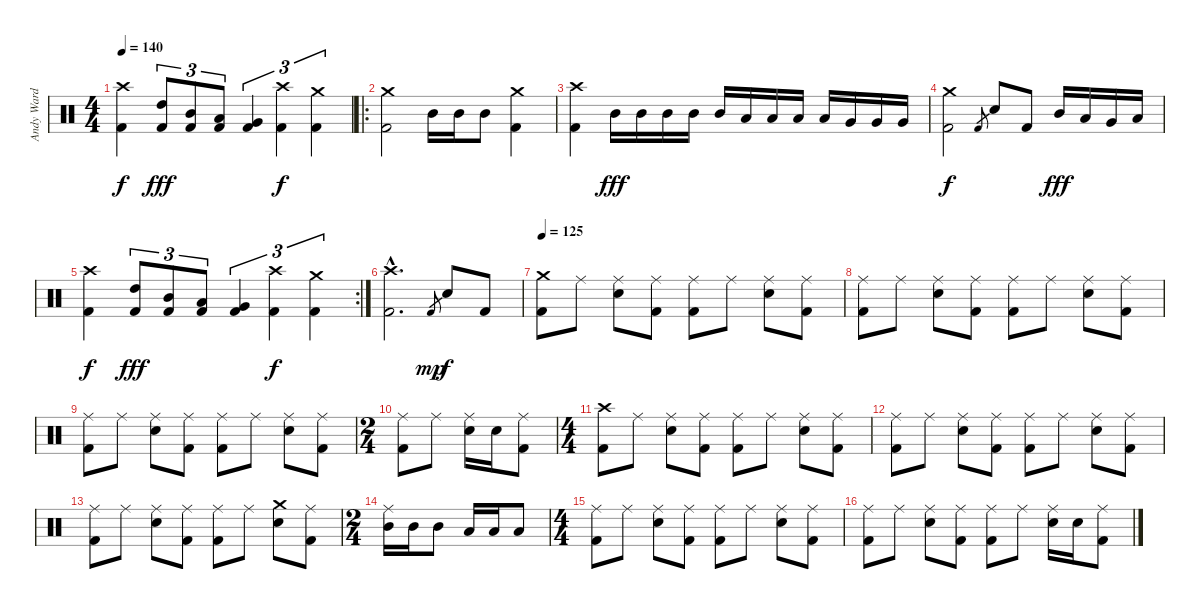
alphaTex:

\track ("Andy Ward" "Andy Ward") {instrument percussion}
\staff {score}
\articulation defaults
\ts (4 4)
\tempo 140
\clef neutral
\ks c
("Crash high (hit)" "Kick (hit) 2").4{dy f} ("High Tom (hit)" "Kick (hit) 2").8{tu (3 2) dy fff} ("Mid Tom (hit)" "Kick (hit) 2").8{tu (3 2)} ("Low Tom (hit)" "Kick (hit) 2").8{tu (3 2)} ("Very Low Tom (hit)" "Kick (hit) 2").4{tu (3 2)} ("Crash high (hit)" "Kick (hit) 2").4{tu (3 2) dy f} ("Crash medium (hit)" "Kick (hit) 2").4{tu (3 2)} |
\ro
("Crash medium (hit)" "Kick (hit) 2").2 "Mid Tom (hit)".16 "Mid Tom (hit)".16 "Mid Tom (hit)".8 ("Crash medium (hit)" "Kick (hit) 2").4 |
("Crash high (hit)" "Kick (hit) 2").4 "Mid Tom (hit)".16{dy fff} "Mid Tom (hit)".16 "Mid Tom (hit)".16 "Mid Tom (hit)".16 "Mid Tom (hit)".16 "Low Tom (hit)".16 "Low Tom (hit)".16 "Low Tom (hit)".16 "Low Tom (hit)".16 "Very Low Tom (hit)".16 "Very Low Tom (hit)".16 "Very Low Tom (hit)".16 |
("Crash medium (hit)" "Kick (hit) 2").2{dy f} "Kick (hit) 2".8{gr} "Snare (hit) 2".8 "Kick (hit) 2".8 "Mid Tom (hit)".16{dy fff} "Low Tom (hit)".16 "Very Low Tom (hit)".16 "Low Floor Tom (hit)".16 |
\rc 2
("Crash high (hit)" "Kick (hit) 2").4{dy f} ("High Tom (hit)" "Kick (hit) 2").8{tu (3 2) dy fff} ("Mid Tom (hit)" "Kick (hit) 2").8{tu (3 2)} ("Low Tom (hit)" "Kick (hit) 2").8{tu (3 2)} ("Very Low Tom (hit)" "Kick (hit) 2").4{tu (3 2)} ("Crash high (hit)" "Kick (hit) 2").4{tu (3 2) dy f} ("Crash medium (hit)" "Kick (hit) 2").4{tu (3 2)} |
("Crash high (hit)"{hac} "Kick (hit) 2"{hac}).2{d} "Kick (hit) 2".8{gr dy mp} "Snare (hit) 2".8{dy f} "Kick (hit) 2".8 |
\tempo 125
("Crash medium (hit)" "Kick (hit) 2").8 "Ride (middle)".8 ("Ride (middle)" "Snare (hit) 2").8 ("Ride (middle)" "Kick (hit) 2").8 ("Ride (middle)" "Kick (hit) 2").8 "Ride (middle)".8 ("Ride (middle)" "Snare (hit) 2").8 ("Ride (middle)" "Kick (hit) 2").8 |
("Ride (middle)" "Kick (hit) 2").8 "Ride (middle)".8 ("Ride (middle)" "Snare (hit) 2").8 ("Ride (middle)" "Kick (hit) 2").8 ("Ride (middle)" "Kick (hit) 2").8 "Ride (middle)".8 ("Ride (middle)" "Snare (hit) 2").8 ("Ride (middle)" "Kick (hit) 2").8 |
("Ride (middle)" "Kick (hit) 2").8 "Ride (middle)".8 ("Ride (middle)" "Snare (hit) 2").8 ("Ride (middle)" "Kick (hit) 2").8 ("Ride (middle)" "Kick (hit) 2").8 "Ride (middle)".8 ("Ride (middle)" "Snare (hit) 2").8 ("Ride (middle)" "Kick (hit) 2").8 |
\ts (2 4)
("Ride (middle)" "Kick (hit) 2").8 "Ride (middle)".8 ("Ride (middle)" "Snare (hit) 2").16 "Snare (hit) 2".16 ("Ride (middle)" "Kick (hit) 2").8 |
\ts (4 4)
("Crash high (hit)" "Kick (hit) 2").8 "Ride (middle)".8 ("Ride (middle)" "Snare (hit) 2").8 ("Ride (middle)" "Kick (hit) 2").8 ("Ride (middle)" "Kick (hit) 2").8 "Ride (middle)".8 ("Ride (middle)" "Snare (hit) 2").8 ("Ride (middle)" "Kick (hit) 2").8 |
("Ride (middle)" "Kick (hit) 2").8 "Ride (middle)".8 ("Ride (middle)" "Snare (hit) 2").8 ("Ride (middle)" "Kick (hit) 2").8 ("Ride (middle)" "Kick (hit) 2").8 "Ride (middle)".8 ("Ride (middle)" "Snare (hit) 2").8 ("Ride (middle)" "Kick (hit) 2").8 |
("Ride (middle)" "Kick (hit) 2").8 "Ride (middle)".8 ("Ride (middle)" "Snare (hit) 2").8 ("Ride (middle)" "Kick (hit) 2").8 ("Ride (middle)" "Kick (hit) 2").8 "Ride (middle)".8 ("Crash medium (hit)" "Snare (hit) 2").8 ("Ride (middle)" "Kick (hit) 2").8 |
\ts (2 4)
("Ride (middle)" "Mid Tom (hit)").16 "Mid Tom (hit)".16 "Mid Tom (hit)".8 "Low Tom (hit)".16 "Low Tom (hit)".16 "Low Tom (hit)".8 |
\ts (4 4)
("Ride (middle)" "Kick (hit) 2").8 "Ride (middle)".8 ("Ride (middle)" "Snare (hit) 2").8 ("Ride (middle)" "Kick (hit) 2").8 ("Ride (middle)" "Kick (hit) 2").8 "Ride (middle)".8 ("Ride (middle)" "Snare (hit) 2").8 ("Ride (middle)" "Kick (hit) 2").8 |
("Ride (middle)" "Kick (hit) 2").8 "Ride (middle)".8 ("Ride (middle)" "Snare (hit) 2").8 ("Ride (middle)" "Kick (hit) 2").8 ("Ride (middle)" "Kick (hit) 2").8 "Ride (middle)".8 ("Ride (middle)" "Snare (hit) 2").16 "Snare (hit) 2".16 ("Ride (middle)" "Kick (hit) 2").8
